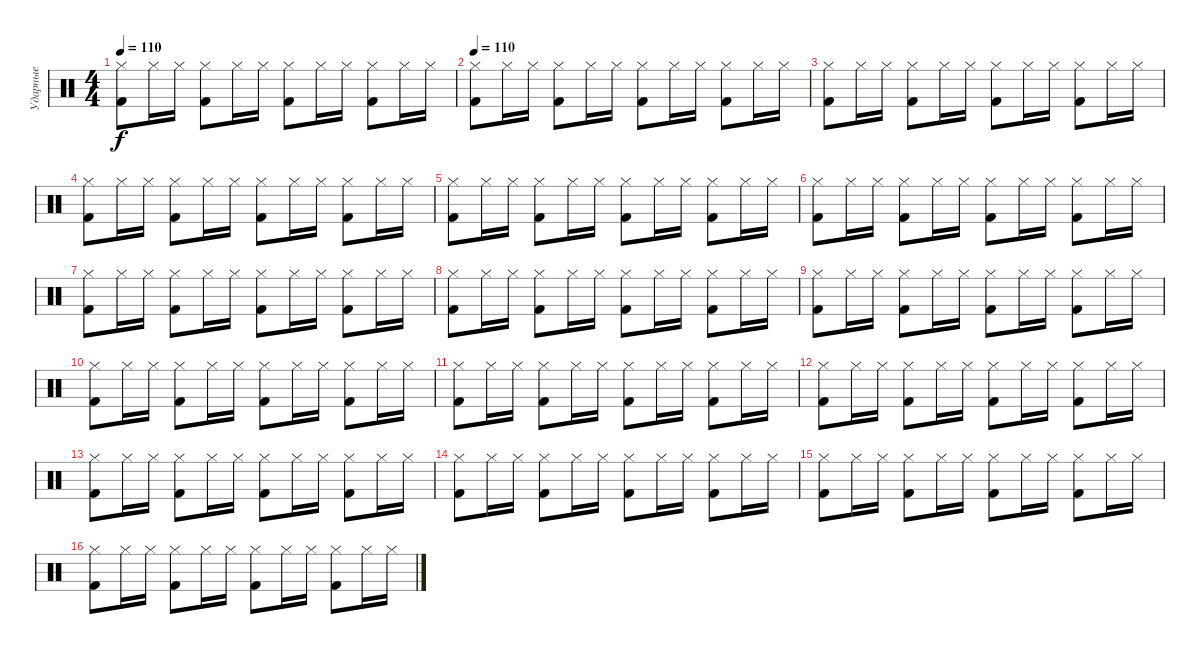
\track ("Ударные" "Ударные") {instrument percussion}
\staff {score}
\articulation defaults
\ts (4 4)
\tempo 110
\clef neutral
\ks c
("Kick (hit) 2" "Hi-Hat (closed)").8{dy f} "Hi-Hat (closed)".16 "Hi-Hat (closed)".16 ("Kick (hit) 2" "Hi-Hat (closed)").8 "Hi-Hat (closed)".16 "Hi-Hat (closed)".16 ("Kick (hit) 2" "Hi-Hat (closed)").8 "Hi-Hat (closed)".16 "Hi-Hat (closed)".16 ("Kick (hit) 2" "Hi-Hat (closed)").8 "Hi-Hat (closed)".16 "Hi-Hat (closed)".16 |
\tempo 110
("Kick (hit) 2" "Hi-Hat (closed)").8 "Hi-Hat (closed)".16 "Hi-Hat (closed)".16 ("Kick (hit) 2" "Hi-Hat (closed)").8 "Hi-Hat (closed)".16 "Hi-Hat (closed)".16 ("Kick (hit) 2" "Hi-Hat (closed)").8 "Hi-Hat (closed)".16 "Hi-Hat (closed)".16 ("Kick (hit) 2" "Hi-Hat (closed)").8 "Hi-Hat (closed)".16 "Hi-Hat (closed)".16 |
("Kick (hit) 2" "Hi-Hat (closed)").8 "Hi-Hat (closed)".16 "Hi-Hat (closed)".16 ("Kick (hit) 2" "Hi-Hat (closed)").8 "Hi-Hat (closed)".16 "Hi-Hat (closed)".16 ("Kick (hit) 2" "Hi-Hat (closed)").8 "Hi-Hat (closed)".16 "Hi-Hat (closed)".16 ("Kick (hit) 2" "Hi-Hat (closed)").8 "Hi-Hat (closed)".16 "Hi-Hat (closed)".16 |
("Kick (hit) 2" "Hi-Hat (closed)").8 "Hi-Hat (closed)".16 "Hi-Hat (closed)".16 ("Kick (hit) 2" "Hi-Hat (closed)").8 "Hi-Hat (closed)".16 "Hi-Hat (closed)".16 ("Kick (hit) 2" "Hi-Hat (closed)").8 "Hi-Hat (closed)".16 "Hi-Hat (closed)".16 ("Kick (hit) 2" "Hi-Hat (closed)").8 "Hi-Hat (closed)".16 "Hi-Hat (closed)".16 |
("Kick (hit) 2" "Hi-Hat (closed)").8 "Hi-Hat (closed)".16 "Hi-Hat (closed)".16 ("Kick (hit) 2" "Hi-Hat (closed)").8 "Hi-Hat (closed)".16 "Hi-Hat (closed)".16 ("Kick (hit) 2" "Hi-Hat (closed)").8 "Hi-Hat (closed)".16 "Hi-Hat (closed)".16 ("Kick (hit) 2" "Hi-Hat (closed)").8 "Hi-Hat (closed)".16 "Hi-Hat (closed)".16 |
("Kick (hit) 2" "Hi-Hat (closed)").8 "Hi-Hat (closed)".16 "Hi-Hat (closed)".16 ("Kick (hit) 2" "Hi-Hat (closed)").8 "Hi-Hat (closed)".16 "Hi-Hat (closed)".16 ("Kick (hit) 2" "Hi-Hat (closed)").8 "Hi-Hat (closed)".16 "Hi-Hat (closed)".16 ("Kick (hit) 2" "Hi-Hat (closed)").8 "Hi-Hat (closed)".16 "Hi-Hat (closed)".16 |
("Kick (hit) 2" "Hi-Hat (closed)").8 "Hi-Hat (closed)".16 "Hi-Hat (closed)".16 ("Kick (hit) 2" "Hi-Hat (closed)").8 "Hi-Hat (closed)".16 "Hi-Hat (closed)".16 ("Kick (hit) 2" "Hi-Hat (closed)").8 "Hi-Hat (closed)".16 "Hi-Hat (closed)".16 ("Kick (hit) 2" "Hi-Hat (closed)").8 "Hi-Hat (closed)".16 "Hi-Hat (closed)".16 |
("Kick (hit) 2" "Hi-Hat (closed)").8 "Hi-Hat (closed)".16 "Hi-Hat (closed)".16 ("Kick (hit) 2" "Hi-Hat (closed)").8 "Hi-Hat (closed)".16 "Hi-Hat (closed)".16 ("Kick (hit) 2" "Hi-Hat (closed)").8 "Hi-Hat (closed)".16 "Hi-Hat (closed)".16 ("Kick (hit) 2" "Hi-Hat (closed)").8 "Hi-Hat (closed)".16 "Hi-Hat (closed)".16 |
("Kick (hit) 2" "Hi-Hat (closed)").8 "Hi-Hat (closed)".16 "Hi-Hat (closed)".16 ("Kick (hit) 2" "Hi-Hat (closed)").8 "Hi-Hat (closed)".16 "Hi-Hat (closed)".16 ("Kick (hit) 2" "Hi-Hat (closed)").8 "Hi-Hat (closed)".16 "Hi-Hat (closed)".16 ("Kick (hit) 2" "Hi-Hat (closed)").8 "Hi-Hat (closed)".16 "Hi-Hat (closed)".16 |
("Kick (hit) 2" "Hi-Hat (closed)").8 "Hi-Hat (closed)".16 "Hi-Hat (closed)".16 ("Kick (hit) 2" "Hi-Hat (closed)").8 "Hi-Hat (closed)".16 "Hi-Hat (closed)".16 ("Kick (hit) 2" "Hi-Hat (closed)").8 "Hi-Hat (closed)".16 "Hi-Hat (closed)".16 ("Kick (hit) 2" "Hi-Hat (closed)").8 "Hi-Hat (closed)".16 "Hi-Hat (closed)".16 |
("Kick (hit) 2" "Hi-Hat (closed)").8 "Hi-Hat (closed)".16 "Hi-Hat (closed)".16 ("Kick (hit) 2" "Hi-Hat (closed)").8 "Hi-Hat (closed)".16 "Hi-Hat (closed)".16 ("Kick (hit) 2" "Hi-Hat (closed)").8 "Hi-Hat (closed)".16 "Hi-Hat (closed)".16 ("Kick (hit) 2" "Hi-Hat (closed)").8 "Hi-Hat (closed)".16 "Hi-Hat (closed)".16 |
("Kick (hit) 2" "Hi-Hat (closed)").8 "Hi-Hat (closed)".16 "Hi-Hat (closed)".16 ("Kick (hit) 2" "Hi-Hat (closed)").8 "Hi-Hat (closed)".16 "Hi-Hat (closed)".16 ("Kick (hit) 2" "Hi-Hat (closed)").8 "Hi-Hat (closed)".16 "Hi-Hat (closed)".16 ("Kick (hit) 2" "Hi-Hat (closed)").8 "Hi-Hat (closed)".16 "Hi-Hat (closed)".16 |
("Kick (hit) 2" "Hi-Hat (closed)").8 "Hi-Hat (closed)".16 "Hi-Hat (closed)".16 ("Kick (hit) 2" "Hi-Hat (closed)").8 "Hi-Hat (closed)".16 "Hi-Hat (closed)".16 ("Kick (hit) 2" "Hi-Hat (closed)").8 "Hi-Hat (closed)".16 "Hi-Hat (closed)".16 ("Kick (hit) 2" "Hi-Hat (closed)").8 "Hi-Hat (closed)".16 "Hi-Hat (closed)".16 |
("Kick (hit) 2" "Hi-Hat (closed)").8 "Hi-Hat (closed)".16 "Hi-Hat (closed)".16 ("Kick (hit) 2" "Hi-Hat (closed)").8 "Hi-Hat (closed)".16 "Hi-Hat (closed)".16 ("Kick (hit) 2" "Hi-Hat (closed)").8 "Hi-Hat (closed)".16 "Hi-Hat (closed)".16 ("Kick (hit) 2" "Hi-Hat (closed)").8 "Hi-Hat (closed)".16 "Hi-Hat (closed)".16 |
("Kick (hit) 2" "Hi-Hat (closed)").8 "Hi-Hat (closed)".16 "Hi-Hat (closed)".16 ("Kick (hit) 2" "Hi-Hat (closed)").8 "Hi-Hat (closed)".16 "Hi-Hat (closed)".16 ("Kick (hit) 2" "Hi-Hat (closed)").8 "Hi-Hat (closed)".16 "Hi-Hat (closed)".16 ("Kick (hit) 2" "Hi-Hat (closed)").8 "Hi-Hat (closed)".16 "Hi-Hat (closed)".16 |
("Kick (hit) 2" "Hi-Hat (closed)").8 "Hi-Hat (closed)".16 "Hi-Hat (closed)".16 ("Kick (hit) 2" "Hi-Hat (closed)").8 "Hi-Hat (closed)".16 "Hi-Hat (closed)".16 ("Kick (hit) 2" "Hi-Hat (closed)").8 "Hi-Hat (closed)".16 "Hi-Hat (closed)".16 ("Kick (hit) 2" "Hi-Hat (closed)").8 "Hi-Hat (closed)".16 "Hi-Hat (closed)".16
